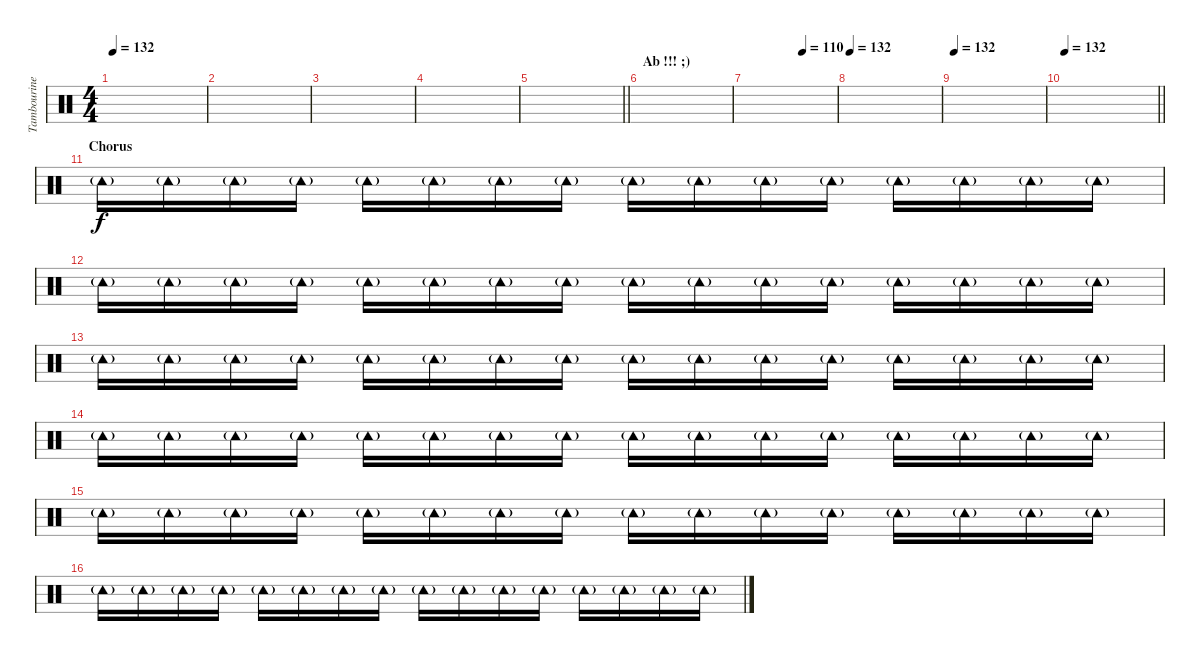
\track ("Tambourine" "Tambourine") {instrument percussion}
\staff {score}
\articulation defaults
\ts (4 4)
\tempo 132
\clef neutral
\ks c
|
|
|
|
\barLineRight lightlight
|
\section ("" "Ab !!! ;)")
|
\tempo (110 0.625)
|
\tempo 132
|
\tempo 132
|
\tempo 132
\barLineRight lightlight
|
\section ("" "Chorus")
"Tambourine (hit)"{g}.16 "Tambourine (hit)"{g}.16 "Tambourine (hit)"{g}.16 "Tambourine (hit)"{g}.16 "Tambourine (hit)"{g}.16 "Tambourine (hit)"{g}.16 "Tambourine (hit)"{g}.16 "Tambourine (hit)"{g}.16 "Tambourine (hit)"{g}.16 "Tambourine (hit)"{g}.16 "Tambourine (hit)"{g}.16 "Tambourine (hit)"{g}.16 "Tambourine (hit)"{g}.16 "Tambourine (hit)"{g}.16 "Tambourine (hit)"{g}.16 "Tambourine (hit)"{g}.16 |
"Tambourine (hit)"{g}.16 "Tambourine (hit)"{g}.16 "Tambourine (hit)"{g}.16 "Tambourine (hit)"{g}.16 "Tambourine (hit)"{g}.16 "Tambourine (hit)"{g}.16 "Tambourine (hit)"{g}.16 "Tambourine (hit)"{g}.16 "Tambourine (hit)"{g}.16 "Tambourine (hit)"{g}.16 "Tambourine (hit)"{g}.16 "Tambourine (hit)"{g}.16 "Tambourine (hit)"{g}.16 "Tambourine (hit)"{g}.16 "Tambourine (hit)"{g}.16 "Tambourine (hit)"{g}.16 |
"Tambourine (hit)"{g}.16 "Tambourine (hit)"{g}.16 "Tambourine (hit)"{g}.16 "Tambourine (hit)"{g}.16 "Tambourine (hit)"{g}.16 "Tambourine (hit)"{g}.16 "Tambourine (hit)"{g}.16 "Tambourine (hit)"{g}.16 "Tambourine (hit)"{g}.16 "Tambourine (hit)"{g}.16 "Tambourine (hit)"{g}.16 "Tambourine (hit)"{g}.16 "Tambourine (hit)"{g}.16 "Tambourine (hit)"{g}.16 "Tambourine (hit)"{g}.16 "Tambourine (hit)"{g}.16 |
"Tambourine (hit)"{g}.16 "Tambourine (hit)"{g}.16 "Tambourine (hit)"{g}.16 "Tambourine (hit)"{g}.16 "Tambourine (hit)"{g}.16 "Tambourine (hit)"{g}.16 "Tambourine (hit)"{g}.16 "Tambourine (hit)"{g}.16 "Tambourine (hit)"{g}.16 "Tambourine (hit)"{g}.16 "Tambourine (hit)"{g}.16 "Tambourine (hit)"{g}.16 "Tambourine (hit)"{g}.16 "Tambourine (hit)"{g}.16 "Tambourine (hit)"{g}.16 "Tambourine (hit)"{g}.16 |
"Tambourine (hit)"{g}.16 "Tambourine (hit)"{g}.16 "Tambourine (hit)"{g}.16 "Tambourine (hit)"{g}.16 "Tambourine (hit)"{g}.16 "Tambourine (hit)"{g}.16 "Tambourine (hit)"{g}.16 "Tambourine (hit)"{g}.16 "Tambourine (hit)"{g}.16 "Tambourine (hit)"{g}.16 "Tambourine (hit)"{g}.16 "Tambourine (hit)"{g}.16 "Tambourine (hit)"{g}.16 "Tambourine (hit)"{g}.16 "Tambourine (hit)"{g}.16 "Tambourine (hit)"{g}.16 |
"Tambourine (hit)"{g}.16 "Tambourine (hit)"{g}.16 "Tambourine (hit)"{g}.16 "Tambourine (hit)"{g}.16 "Tambourine (hit)"{g}.16 "Tambourine (hit)"{g}.16 "Tambourine (hit)"{g}.16 "Tambourine (hit)"{g}.16 "Tambourine (hit)"{g}.16 "Tambourine (hit)"{g}.16 "Tambourine (hit)"{g}.16 "Tambourine (hit)"{g}.16 "Tambourine (hit)"{g}.16 "Tambourine (hit)"{g}.16 "Tambourine (hit)"{g}.16 "Tambourine (hit)"{g}.16
